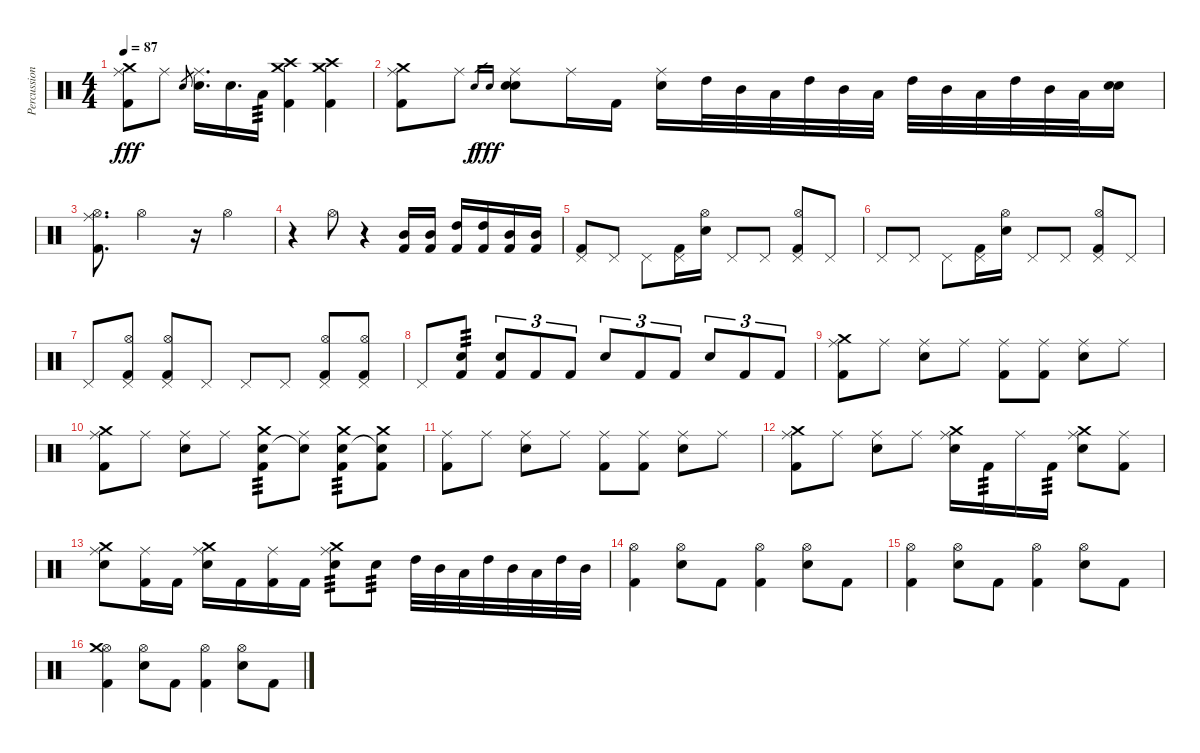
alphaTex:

\track ("Percussion" "Percussion") {instrument percussion}
\staff {score}
\articulation defaults
\ts (4 4)
\tempo 87
\clef neutral
\ks c
("Ride (middle)" "Crash medium (hit)" "Kick (hit) 2").8{dy fff} "Ride (middle)".8 "Electric Snare (hit)".8{gr} ("Ride (middle)" "Electric Snare (hit)").16{d} "Electric Snare (hit)".16{d} "Low Tom (hit)".16{tp 3} ("Crash high (hit)" "Crash medium (hit)" "Kick (hit) 2").4 ("Crash high (hit)" "Crash medium (hit)" "Kick (hit) 2").4 |
("Ride (middle)" "Crash medium (hit)" "Kick (hit) 2").8 "Ride (middle)".8 "Electric Snare (hit)".16{gr dy f} "Electric Snare (hit)".16{gr dy fff} ("Ride (middle)" "Electric Snare (hit)" "Electric Snare (hit)").8 "Ride (middle)".16 "Kick (hit) 2".16 ("Ride (middle)" "Electric Snare (hit)").16 "High Tom (hit)".32 "Mid Tom (hit)".32 "Low Tom (hit)".32 "High Tom (hit)".32 "Mid Tom (hit)".32 "Low Tom (hit)".32 "High Tom (hit)".32 "Mid Tom (hit)".32 "Low Tom (hit)".32 "High Tom (hit)".32 "Mid Tom (hit)".32 "Low Tom (hit)".32 ("Electric Snare (hit)" "Electric Snare (hit)").16 |
("Ride (middle)" "Hi-Hat (open)" "Kick (hit) 2").8{d} "Hi-Hat (open)".2 r.16 "Hi-Hat (open)".4 |
r.4 "Hi-Hat (open)".8 r.4 ("Mid Tom (hit)" "Kick (hit) 2").16 ("Mid Tom (hit)" "Kick (hit) 2").16 ("High Tom (hit)" "Kick (hit) 2").16 ("High Tom (hit)" "Kick (hit) 2").16 ("Mid Tom (hit)" "Kick (hit) 2").16 ("Mid Tom (hit)" "Kick (hit) 2").16 |
("Pedal Hi-Hat (hit)" "Kick (hit) 2").8 "Pedal Hi-Hat (hit)".8 "Pedal Hi-Hat (hit)".8 ("Pedal Hi-Hat (hit)" "Kick (hit) 2").16 ("Hi-Hat (open)" "Electric Snare (hit)").16 "Pedal Hi-Hat (hit)".8 "Pedal Hi-Hat (hit)".8 ("Pedal Hi-Hat (hit)" "Hi-Hat (open)" "Kick (hit) 2").8 "Pedal Hi-Hat (hit)".8 |
"Pedal Hi-Hat (hit)".8 "Pedal Hi-Hat (hit)".8 "Pedal Hi-Hat (hit)".8 ("Pedal Hi-Hat (hit)" "Kick (hit) 2").16 ("Hi-Hat (open)" "Electric Snare (hit)").16 "Pedal Hi-Hat (hit)".8 "Pedal Hi-Hat (hit)".8 ("Pedal Hi-Hat (hit)" "Hi-Hat (open)" "Kick (hit) 2").8 "Pedal Hi-Hat (hit)".8 |
"Pedal Hi-Hat (hit)".8 ("Pedal Hi-Hat (hit)" "Hi-Hat (open)" "Kick (hit) 2").8 ("Pedal Hi-Hat (hit)" "Hi-Hat (open)" "Kick (hit) 2").8 "Pedal Hi-Hat (hit)".8 "Pedal Hi-Hat (hit)".8 "Pedal Hi-Hat (hit)".8 ("Pedal Hi-Hat (hit)" "Hi-Hat (open)" "Kick (hit) 2").8 ("Pedal Hi-Hat (hit)" "Hi-Hat (open)" "Kick (hit) 2").8 |
"Pedal Hi-Hat (hit)".8 ("Electric Snare (hit)" "Kick (hit) 2").8{tp 3} ("Electric Snare (hit)" "Kick (hit) 2").8{tu (3 2)} "Kick (hit) 2".8{tu (3 2)} "Kick (hit) 2".8{tu (3 2)} "Electric Snare (hit)".8{tu (3 2)} "Kick (hit) 2".8{tu (3 2)} "Kick (hit) 2".8{tu (3 2)} "Electric Snare (hit)".8{tu (3 2)} "Kick (hit) 2".8{tu (3 2)} "Kick (hit) 2".8{tu (3 2)} |
("Ride (middle)" "Crash medium (hit)" "Kick (hit) 2").8 "Ride (middle)".8 ("Ride (middle)" "Electric Snare (hit)").8 "Ride (middle)".8 ("Ride (middle)" "Kick (hit) 2").8 ("Ride (middle)" "Kick (hit) 2").8 ("Ride (middle)" "Electric Snare (hit)").8 "Ride (middle)".8 |
("Ride (middle)" "Crash medium (hit)" "Kick (hit) 2").8 "Ride (middle)".8 ("Ride (middle)" "Electric Snare (hit)").8 "Ride (middle)".8 ("Crash medium (hit)" "Electric Snare (hit)" "Kick (hit) 2").8{tp 3} ("Ride (middle)" "Snare (hit)"{t}).8 ("Crash medium (hit)" "Electric Snare (hit)" "Kick (hit) 2").8{tp 3} ("Crash medium (hit)" "Snare (hit)"{t} "Kick (hit) 2").8 |
("Ride (middle)" "Kick (hit) 2").8 "Ride (middle)".8 ("Ride (middle)" "Electric Snare (hit)").8 "Ride (middle)".8 ("Ride (middle)" "Kick (hit) 2").8 ("Ride (middle)" "Kick (hit) 2").8 ("Ride (middle)" "Electric Snare (hit)").8 "Ride (middle)".8 |
("Ride (middle)" "Crash medium (hit)" "Kick (hit) 2").8 "Ride (middle)".8 ("Ride (middle)" "Electric Snare (hit)").8 "Ride (middle)".8 ("Ride (middle)" "Crash medium (hit)" "Electric Snare (hit)").16 "Kick (hit) 2".16{tp 3} "Ride (middle)".16 "Kick (hit) 2".16{tp 3} ("Ride (middle)" "Crash medium (hit)" "Electric Snare (hit)").8 ("Ride (middle)" "Kick (hit) 2").8 |
("Ride (middle)" "Crash medium (hit)" "Electric Snare (hit)").8 ("Ride (middle)" "Kick (hit) 2").16 "Kick (hit) 2".16 ("Ride (middle)" "Crash medium (hit)" "Electric Snare (hit)").16 "Kick (hit) 2".16 ("Ride (middle)" "Kick (hit) 2").16 "Kick (hit) 2".16 ("Ride (middle)" "Crash medium (hit)" "Electric Snare (hit)").8{tp 3} "Electric Snare (hit)".8{tp 3} "High Tom (hit)".32 "Mid Tom (hit)".32 "Low Tom (hit)".32 "High Tom (hit)".32 "Mid Tom (hit)".32 "Low Tom (hit)".32 "High Tom (hit)".32 "Mid Tom (hit)".32 |
("Hi-Hat (open)" "Kick (hit) 2").4 ("Hi-Hat (open)" "Electric Snare (hit)").8 "Kick (hit) 2".8 ("Hi-Hat (open)" "Kick (hit) 2").4 ("Hi-Hat (open)" "Electric Snare (hit)").8 "Kick (hit) 2".8 |
("Hi-Hat (open)" "Kick (hit) 2").4 ("Hi-Hat (open)" "Electric Snare (hit)").8 "Kick (hit) 2".8 ("Hi-Hat (open)" "Kick (hit) 2").4 ("Hi-Hat (open)" "Electric Snare (hit)").8 "Kick (hit) 2".8 |
("Hi-Hat (open)" "Crash medium (hit)" "Kick (hit) 2").4 ("Hi-Hat (open)" "Electric Snare (hit)").8 "Kick (hit) 2".8 ("Hi-Hat (open)" "Kick (hit) 2").4 ("Hi-Hat (open)" "Electric Snare (hit)").8 "Kick (hit) 2".8
